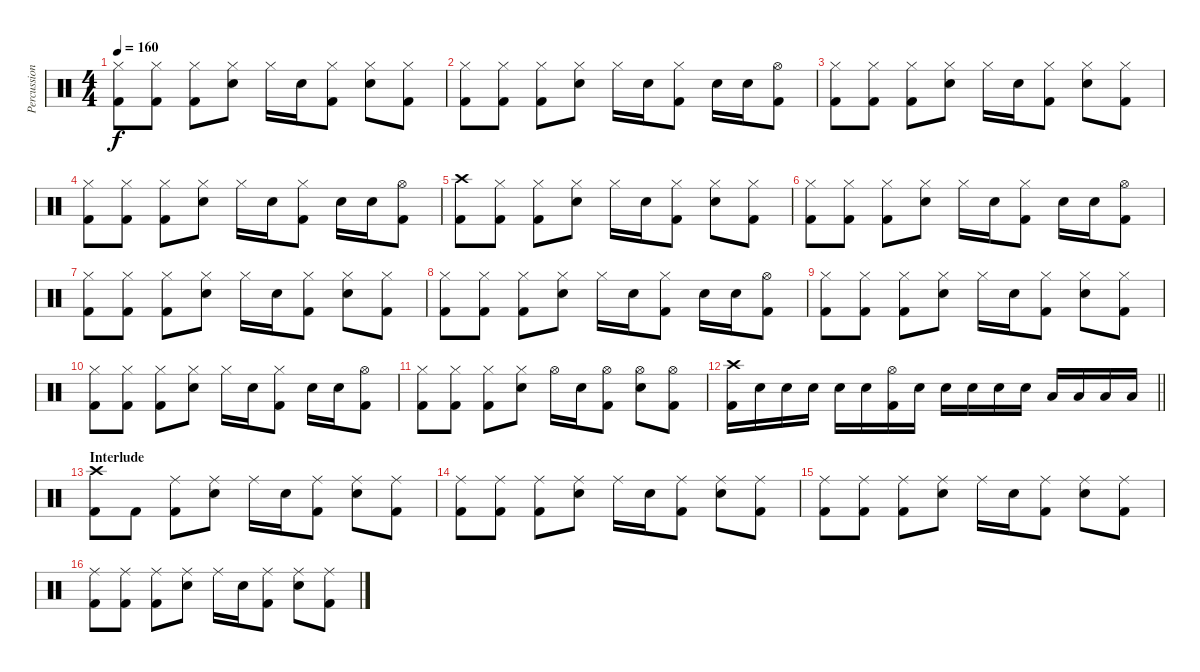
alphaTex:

\track ("Percussion" "Percussion") {instrument percussion}
\staff {score}
\articulation defaults
\ts (4 4)
\tempo 160
\clef neutral
\ks c
("Hi-Hat (closed)" "Kick (hit) 2").8{dy f} ("Hi-Hat (closed)" "Kick (hit) 2").8 ("Hi-Hat (closed)" "Kick (hit) 2").8 ("Hi-Hat (closed)" "Electric Snare (hit)").8 "Hi-Hat (closed)".16 "Electric Snare (hit)".16 ("Hi-Hat (closed)" "Kick (hit) 2").8 ("Hi-Hat (closed)" "Electric Snare (hit)").8 ("Hi-Hat (closed)" "Kick (hit) 2").8 |
("Hi-Hat (closed)" "Kick (hit) 2").8 ("Hi-Hat (closed)" "Kick (hit) 2").8 ("Hi-Hat (closed)" "Kick (hit) 2").8 ("Hi-Hat (closed)" "Electric Snare (hit)").8 "Hi-Hat (closed)".16 "Electric Snare (hit)".16 ("Hi-Hat (closed)" "Kick (hit) 2").8 "Electric Snare (hit)".16 "Electric Snare (hit)".16 ("Hi-Hat (open)" "Kick (hit) 2").8 |
("Hi-Hat (closed)" "Kick (hit) 2").8 ("Hi-Hat (closed)" "Kick (hit) 2").8 ("Hi-Hat (closed)" "Kick (hit) 2").8 ("Hi-Hat (closed)" "Electric Snare (hit)").8 "Hi-Hat (closed)".16 "Electric Snare (hit)".16 ("Hi-Hat (closed)" "Kick (hit) 2").8 ("Hi-Hat (closed)" "Electric Snare (hit)").8 ("Hi-Hat (closed)" "Kick (hit) 2").8 |
("Hi-Hat (closed)" "Kick (hit) 2").8 ("Hi-Hat (closed)" "Kick (hit) 2").8 ("Hi-Hat (closed)" "Kick (hit) 2").8 ("Hi-Hat (closed)" "Electric Snare (hit)").8 "Hi-Hat (closed)".16 "Electric Snare (hit)".16 ("Hi-Hat (closed)" "Kick (hit) 2").8 "Electric Snare (hit)".16 "Electric Snare (hit)".16 ("Hi-Hat (open)" "Kick (hit) 2").8 |
("Crash high (hit)" "Kick (hit) 2").8 ("Hi-Hat (closed)" "Kick (hit) 2").8 ("Hi-Hat (closed)" "Kick (hit) 2").8 ("Hi-Hat (closed)" "Electric Snare (hit)").8 "Hi-Hat (closed)".16 "Electric Snare (hit)".16 ("Hi-Hat (closed)" "Kick (hit) 2").8 ("Hi-Hat (closed)" "Electric Snare (hit)").8 ("Hi-Hat (closed)" "Kick (hit) 2").8 |
("Hi-Hat (closed)" "Kick (hit) 2").8 ("Hi-Hat (closed)" "Kick (hit) 2").8 ("Hi-Hat (closed)" "Kick (hit) 2").8 ("Hi-Hat (closed)" "Electric Snare (hit)").8 "Hi-Hat (closed)".16 "Electric Snare (hit)".16 ("Hi-Hat (closed)" "Kick (hit) 2").8 "Electric Snare (hit)".16 "Electric Snare (hit)".16 ("Hi-Hat (open)" "Kick (hit) 2").8 |
("Hi-Hat (closed)" "Kick (hit) 2").8 ("Hi-Hat (closed)" "Kick (hit) 2").8 ("Hi-Hat (closed)" "Kick (hit) 2").8 ("Hi-Hat (closed)" "Electric Snare (hit)").8 "Hi-Hat (closed)".16 "Electric Snare (hit)".16 ("Hi-Hat (closed)" "Kick (hit) 2").8 ("Hi-Hat (closed)" "Electric Snare (hit)").8 ("Hi-Hat (closed)" "Kick (hit) 2").8 |
("Hi-Hat (closed)" "Kick (hit) 2").8 ("Hi-Hat (closed)" "Kick (hit) 2").8 ("Hi-Hat (closed)" "Kick (hit) 2").8 ("Hi-Hat (closed)" "Electric Snare (hit)").8 "Hi-Hat (closed)".16 "Electric Snare (hit)".16 ("Hi-Hat (closed)" "Kick (hit) 2").8 "Electric Snare (hit)".16 "Electric Snare (hit)".16 ("Hi-Hat (open)" "Kick (hit) 2").8 |
("Hi-Hat (closed)" "Kick (hit) 2").8 ("Hi-Hat (closed)" "Kick (hit) 2").8 ("Hi-Hat (closed)" "Kick (hit) 2").8 ("Hi-Hat (closed)" "Electric Snare (hit)").8 "Hi-Hat (closed)".16 "Electric Snare (hit)".16 ("Hi-Hat (closed)" "Kick (hit) 2").8 ("Hi-Hat (closed)" "Electric Snare (hit)").8 ("Hi-Hat (closed)" "Kick (hit) 2").8 |
("Hi-Hat (closed)" "Kick (hit) 2").8 ("Hi-Hat (closed)" "Kick (hit) 2").8 ("Hi-Hat (closed)" "Kick (hit) 2").8 ("Hi-Hat (closed)" "Electric Snare (hit)").8 "Hi-Hat (closed)".16 "Electric Snare (hit)".16 ("Hi-Hat (closed)" "Kick (hit) 2").8 "Electric Snare (hit)".16 "Electric Snare (hit)".16 ("Hi-Hat (open)" "Kick (hit) 2").8 |
("Hi-Hat (closed)" "Kick (hit) 2").8 ("Hi-Hat (closed)" "Kick (hit) 2").8 ("Hi-Hat (closed)" "Kick (hit) 2").8 ("Hi-Hat (closed)" "Electric Snare (hit)").8 "Hi-Hat (open)".16 "Electric Snare (hit)".16 ("Hi-Hat (open)" "Kick (hit) 2").8 ("Hi-Hat (open)" "Electric Snare (hit)").8 ("Hi-Hat (open)" "Kick (hit) 2").8 |
\barLineRight lightlight
("Crash high (hit)" "Kick (hit) 2").16 "Electric Snare (hit)".16 "Electric Snare (hit)".16 "Electric Snare (hit)".16 "Electric Snare (hit)".16 "Electric Snare (hit)".16 ("Hi-Hat (open)" "Kick (hit) 2").16 "Electric Snare (hit)".16 "Electric Snare (hit)".16 "Electric Snare (hit)".16 "Electric Snare (hit)".16 "Electric Snare (hit)".16 "Low Tom (hit)".16 "Low Tom (hit)".16 "Low Tom (hit)".16 "Low Tom (hit)".16 |
\section ("" "Interlude")
("Crash high (hit)" "Kick (hit) 2").8 "Kick (hit) 2".8 ("Ride (middle)" "Kick (hit) 2").8 ("Ride (middle)" "Electric Snare (hit)").8 "Ride (middle)".16 "Electric Snare (hit)".16 ("Ride (middle)" "Kick (hit) 2").8 ("Ride (middle)" "Electric Snare (hit)").8 ("Ride (middle)" "Kick (hit) 2").8 |
("Ride (middle)" "Kick (hit) 2").8 ("Ride (middle)" "Kick (hit) 2").8 ("Ride (middle)" "Kick (hit) 2").8 ("Ride (middle)" "Electric Snare (hit)").8 "Ride (middle)".16 "Electric Snare (hit)".16 ("Ride (middle)" "Kick (hit) 2").8 ("Ride (middle)" "Electric Snare (hit)").8 ("Ride (middle)" "Kick (hit) 2").8 |
("Ride (middle)" "Kick (hit) 2").8 ("Ride (middle)" "Kick (hit) 2").8 ("Ride (middle)" "Kick (hit) 2").8 ("Ride (middle)" "Electric Snare (hit)").8 "Ride (middle)".16 "Electric Snare (hit)".16 ("Ride (middle)" "Kick (hit) 2").8 ("Ride (middle)" "Electric Snare (hit)").8 ("Ride (middle)" "Kick (hit) 2").8 |
("Ride (middle)" "Kick (hit) 2").8 ("Ride (middle)" "Kick (hit) 2").8 ("Ride (middle)" "Kick (hit) 2").8 ("Ride (middle)" "Electric Snare (hit)").8 "Ride (middle)".16 "Electric Snare (hit)".16 ("Ride (middle)" "Kick (hit) 2").8 ("Ride (middle)" "Electric Snare (hit)").8 ("Ride (middle)" "Kick (hit) 2").8
